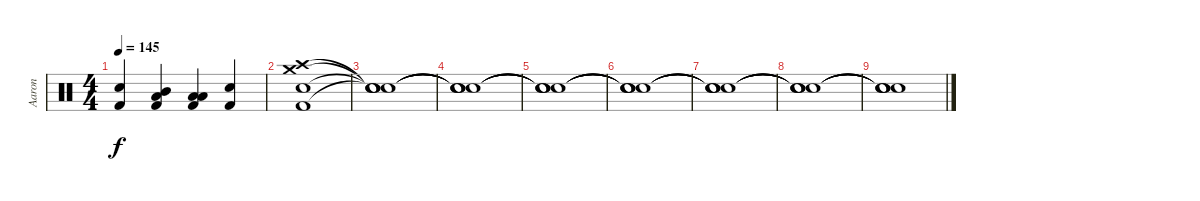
\track ("Aaron" "Aaron") {instrument percussion}
\staff {score}
\articulation defaults
\ts (4 4)
\tempo 145
\clef neutral
\ks c
("Snare (hit) 2" "Kick (hit) 2").4{dy f} ("Mid Tom (hit)" "Low Tom (hit)" "Kick (hit) 2").4 ("Low Tom (hit)" "Low Floor Tom (hit)" "Kick (hit) 2").4 ("Snare (hit) 2" "Kick (hit) 2").4 |
("Crash high (hit)" "Crash medium (hit)" "Snare (hit) 2" "Kick (hit) 2").1 |
("Snare (hit)"{t} "Snare (hit)"{t} "Snare (hit)"{t} "Snare (hit)"{t}).1 |
("Snare (hit)"{t} "Snare (hit)"{t} "Snare (hit)"{t} "Snare (hit)"{t}).1 |
("Snare (hit)"{t} "Snare (hit)"{t} "Snare (hit)"{t} "Snare (hit)"{t}).1 |
("Snare (hit)"{t} "Snare (hit)"{t} "Snare (hit)"{t} "Snare (hit)"{t}).1 |
("Snare (hit)"{t} "Snare (hit)"{t} "Snare (hit)"{t} "Snare (hit)"{t}).1 |
("Snare (hit)"{t} "Snare (hit)"{t} "Snare (hit)"{t} "Snare (hit)"{t}).1 |
("Snare (hit)"{t} "Snare (hit)"{t} "Snare (hit)"{t} "Snare (hit)"{t}).1
